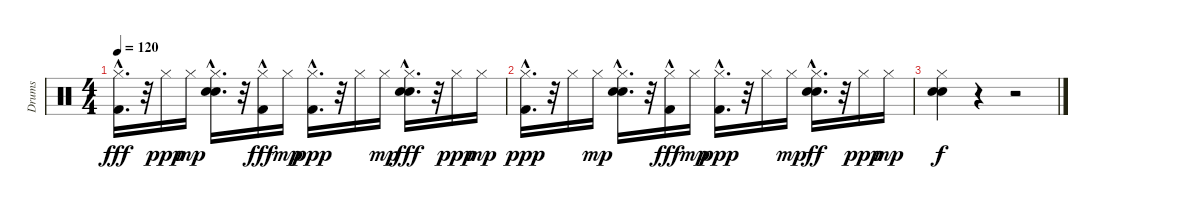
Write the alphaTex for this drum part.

\track ("Drums" "Drums") {instrument percussion}
\staff {score}
\articulation defaults
\ts (4 4)
\tempo 120
\clef neutral
\ks c
("Hi-Hat (closed)"{hac} "Kick (hit) 2"{hac}).16{d dy fff} r.32 "Hi-Hat (closed)".16{dy ppp} "Hi-Hat (closed)".16{dy mp} ("Hand Clap (hit)"{hac} "Snare (hit) 2"{hac} "Hi-Hat (closed)"{hac}).16{d} r.32 ("Hi-Hat (closed)" "Kick (hit) 2"{hac}).16{dy fff} "Hi-Hat (closed)".16{dy mp} ("Kick (hit) 2"{hac} "Hi-Hat (closed)"{hac}).16{d dy ppp} r.32 "Hi-Hat (closed)".16 "Hi-Hat (closed)".16{dy mp} ("Hand Clap (hit)"{hac} "Hi-Hat (closed)"{hac} "Snare (hit) 2"{hac}).16{d dy fff} r.32 "Hi-Hat (closed)".16{dy ppp} "Hi-Hat (closed)".16{dy mp} |
("Kick (hit) 2"{hac} "Hi-Hat (closed)"{hac}).16{d dy ppp} r.32 "Hi-Hat (closed)".16 "Hi-Hat (closed)".16{dy mp} ("Snare (hit) 2"{hac} "Hand Clap (hit)"{hac} "Hi-Hat (closed)"{hac}).16{d} r.32 ("Hi-Hat (closed)" "Kick (hit) 2"{hac}).16{dy fff} "Hi-Hat (closed)".16{dy mp} ("Kick (hit) 2"{hac} "Hi-Hat (closed)"{hac}).16{d dy ppp} r.32 "Hi-Hat (closed)".16 "Hi-Hat (closed)".16{dy mp} ("Hand Clap (hit)"{hac} "Snare (hit) 2"{hac} "Hi-Hat (closed)"{hac}).16{d dy ff} r.32 "Hi-Hat (closed)".16{dy ppp} "Hi-Hat (closed)".16{dy mp} |
("Hi-Hat (closed)" "Hand Clap (hit)" "Snare (hit) 2").4{dy f} r.4 r.2
